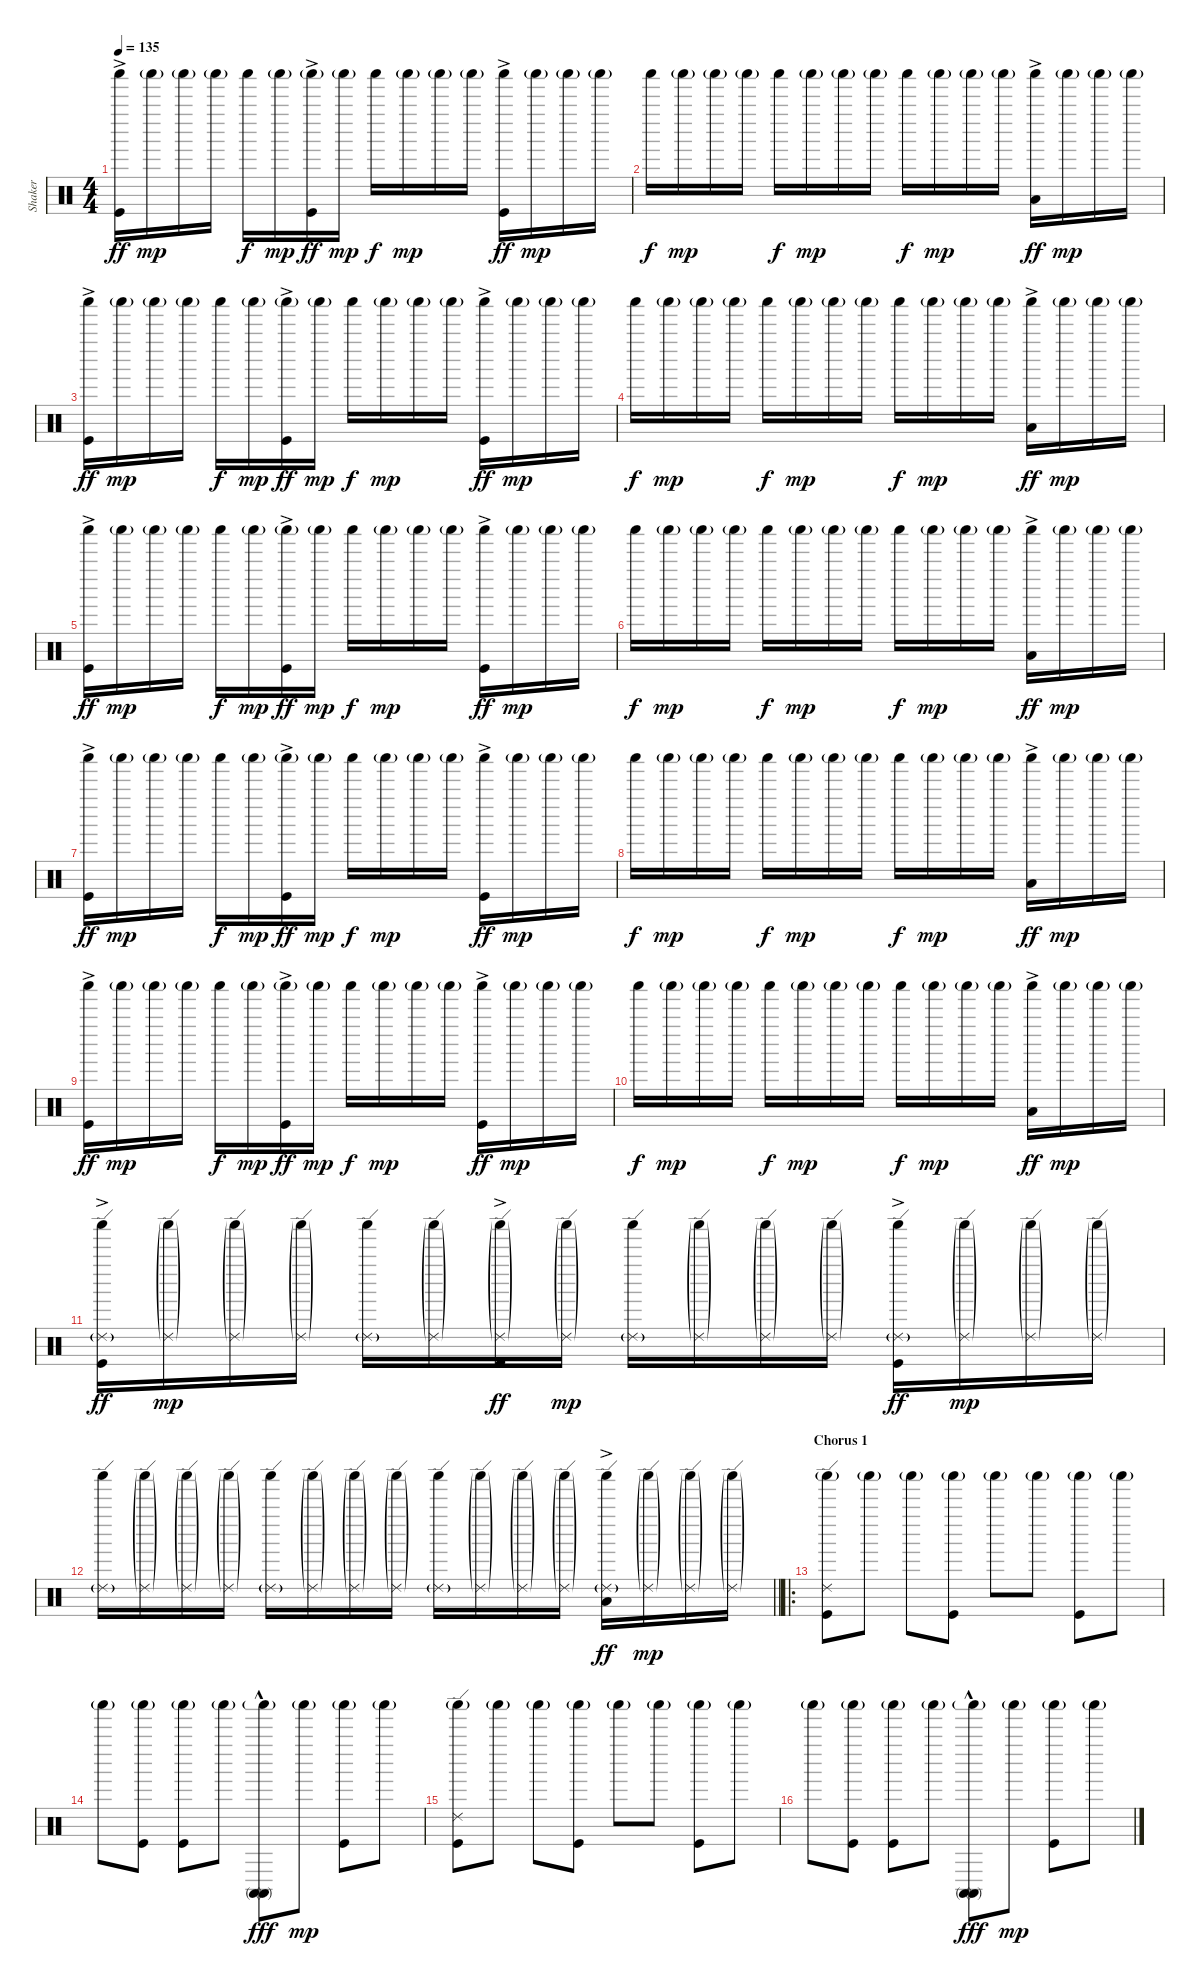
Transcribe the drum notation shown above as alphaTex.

\track ("Shaker" "Shaker") {instrument percussion}
\staff {score}
\articulation defaults
\ts (4 4)
\tempo 135
\clef neutral
\ks c
("Shaker (hit)" "Kick (hit)"{ac}).16{dy ff} "Shaker (hit)"{g}.16{dy mp} "Shaker (hit)"{g}.16 "Shaker (hit)"{g}.16 "Shaker (hit)".16{dy f} "Shaker (hit)"{g}.16{dy mp} ("Shaker (hit)"{g} "Kick (hit)"{ac}).16{dy ff} "Shaker (hit)"{g}.16{dy mp} "Shaker (hit)".16{dy f} "Shaker (hit)"{g}.16{dy mp} "Shaker (hit)"{g}.16 "Shaker (hit)"{g}.16 ("Shaker (hit)" "Kick (hit)"{ac}).16{dy ff} "Shaker (hit)"{g}.16{dy mp} "Shaker (hit)"{g}.16 "Shaker (hit)"{g}.16 |
"Shaker (hit)".16{dy f} "Shaker (hit)"{g}.16{dy mp} "Shaker (hit)"{g}.16 "Shaker (hit)"{g}.16 "Shaker (hit)".16{dy f} "Shaker (hit)"{g}.16{dy mp} "Shaker (hit)"{g}.16 "Shaker (hit)"{g}.16 "Shaker (hit)".16{dy f} "Shaker (hit)"{g}.16{dy mp} "Shaker (hit)"{g}.16 "Shaker (hit)"{g}.16 ("Shaker (hit)" "Low Floor Tom (hit)"{ac}).16{dy ff} "Shaker (hit)"{g}.16{dy mp} "Shaker (hit)"{g}.16 "Shaker (hit)"{g}.16 |
("Shaker (hit)" "Kick (hit)"{ac}).16{dy ff} "Shaker (hit)"{g}.16{dy mp} "Shaker (hit)"{g}.16 "Shaker (hit)"{g}.16 "Shaker (hit)".16{dy f} "Shaker (hit)"{g}.16{dy mp} ("Shaker (hit)"{g} "Kick (hit)"{ac}).16{dy ff} "Shaker (hit)"{g}.16{dy mp} "Shaker (hit)".16{dy f} "Shaker (hit)"{g}.16{dy mp} "Shaker (hit)"{g}.16 "Shaker (hit)"{g}.16 ("Shaker (hit)" "Kick (hit)"{ac}).16{dy ff} "Shaker (hit)"{g}.16{dy mp} "Shaker (hit)"{g}.16 "Shaker (hit)"{g}.16 |
"Shaker (hit)".16{dy f} "Shaker (hit)"{g}.16{dy mp} "Shaker (hit)"{g}.16 "Shaker (hit)"{g}.16 "Shaker (hit)".16{dy f} "Shaker (hit)"{g}.16{dy mp} "Shaker (hit)"{g}.16 "Shaker (hit)"{g}.16 "Shaker (hit)".16{dy f} "Shaker (hit)"{g}.16{dy mp} "Shaker (hit)"{g}.16 "Shaker (hit)"{g}.16 ("Shaker (hit)" "Low Floor Tom (hit)"{ac}).16{dy ff} "Shaker (hit)"{g}.16{dy mp} "Shaker (hit)"{g}.16 "Shaker (hit)"{g}.16 |
("Shaker (hit)" "Kick (hit)"{ac}).16{dy ff} "Shaker (hit)"{g}.16{dy mp} "Shaker (hit)"{g}.16 "Shaker (hit)"{g}.16 "Shaker (hit)".16{dy f} "Shaker (hit)"{g}.16{dy mp} ("Shaker (hit)"{g} "Kick (hit)"{ac}).16{dy ff} "Shaker (hit)"{g}.16{dy mp} "Shaker (hit)".16{dy f} "Shaker (hit)"{g}.16{dy mp} "Shaker (hit)"{g}.16 "Shaker (hit)"{g}.16 ("Shaker (hit)" "Kick (hit)"{ac}).16{dy ff} "Shaker (hit)"{g}.16{dy mp} "Shaker (hit)"{g}.16 "Shaker (hit)"{g}.16 |
"Shaker (hit)".16{dy f} "Shaker (hit)"{g}.16{dy mp} "Shaker (hit)"{g}.16 "Shaker (hit)"{g}.16 "Shaker (hit)".16{dy f} "Shaker (hit)"{g}.16{dy mp} "Shaker (hit)"{g}.16 "Shaker (hit)"{g}.16 "Shaker (hit)".16{dy f} "Shaker (hit)"{g}.16{dy mp} "Shaker (hit)"{g}.16 "Shaker (hit)"{g}.16 ("Shaker (hit)" "Low Floor Tom (hit)"{ac}).16{dy ff} "Shaker (hit)"{g}.16{dy mp} "Shaker (hit)"{g}.16 "Shaker (hit)"{g}.16 |
("Shaker (hit)" "Kick (hit)"{ac}).16{dy ff} "Shaker (hit)"{g}.16{dy mp} "Shaker (hit)"{g}.16 "Shaker (hit)"{g}.16 "Shaker (hit)".16{dy f} "Shaker (hit)"{g}.16{dy mp} ("Shaker (hit)"{g} "Kick (hit)"{ac}).16{dy ff} "Shaker (hit)"{g}.16{dy mp} "Shaker (hit)".16{dy f} "Shaker (hit)"{g}.16{dy mp} "Shaker (hit)"{g}.16 "Shaker (hit)"{g}.16 ("Shaker (hit)" "Kick (hit)"{ac}).16{dy ff} "Shaker (hit)"{g}.16{dy mp} "Shaker (hit)"{g}.16 "Shaker (hit)"{g}.16 |
"Shaker (hit)".16{dy f} "Shaker (hit)"{g}.16{dy mp} "Shaker (hit)"{g}.16 "Shaker (hit)"{g}.16 "Shaker (hit)".16{dy f} "Shaker (hit)"{g}.16{dy mp} "Shaker (hit)"{g}.16 "Shaker (hit)"{g}.16 "Shaker (hit)".16{dy f} "Shaker (hit)"{g}.16{dy mp} "Shaker (hit)"{g}.16 "Shaker (hit)"{g}.16 ("Shaker (hit)" "Low Floor Tom (hit)"{ac}).16{dy ff} "Shaker (hit)"{g}.16{dy mp} "Shaker (hit)"{g}.16 "Shaker (hit)"{g}.16 |
("Shaker (hit)" "Kick (hit)"{ac}).16{dy ff} "Shaker (hit)"{g}.16{dy mp} "Shaker (hit)"{g}.16 "Shaker (hit)"{g}.16 "Shaker (hit)".16{dy f} "Shaker (hit)"{g}.16{dy mp} ("Shaker (hit)"{g} "Kick (hit)"{ac}).16{dy ff} "Shaker (hit)"{g}.16{dy mp} "Shaker (hit)".16{dy f} "Shaker (hit)"{g}.16{dy mp} "Shaker (hit)"{g}.16 "Shaker (hit)"{g}.16 ("Shaker (hit)" "Kick (hit)"{ac}).16{dy ff} "Shaker (hit)"{g}.16{dy mp} "Shaker (hit)"{g}.16 "Shaker (hit)"{g}.16 |
"Shaker (hit)".16{dy f} "Shaker (hit)"{g}.16{dy mp} "Shaker (hit)"{g}.16 "Shaker (hit)"{g}.16 "Shaker (hit)".16{dy f} "Shaker (hit)"{g}.16{dy mp} "Shaker (hit)"{g}.16 "Shaker (hit)"{g}.16 "Shaker (hit)".16{dy f} "Shaker (hit)"{g}.16{dy mp} "Shaker (hit)"{g}.16 "Shaker (hit)"{g}.16 ("Shaker (hit)" "Low Floor Tom (hit)"{ac}).16{dy ff} "Shaker (hit)"{g}.16{dy mp} "Shaker (hit)"{g}.16 "Shaker (hit)"{g}.16 |
("Shaker (hit)" "Ride (edge) 2"{g} "Kick (hit)"{ac}).16{dy ff} ("Shaker (hit)"{g} "Ride (edge) 2"{g}).16{dy mp} ("Shaker (hit)"{g} "Ride (edge) 2"{g}).16 ("Shaker (hit)"{g} "Ride (edge) 2"{g}).16 ("Shaker (hit)" "Ride (edge) 2"{g}).16 ("Shaker (hit)"{g} "Ride (edge) 2"{g}).16 ("Shaker (hit)"{g} "Ride (edge) 2"{g} "Kick (hit)"{ac}).16{dy ff} ("Shaker (hit)"{g} "Ride (edge) 2"{g}).16{dy mp} ("Shaker (hit)" "Ride (edge) 2"{g}).16 ("Shaker (hit)"{g} "Ride (edge) 2"{g}).16 ("Shaker (hit)"{g} "Ride (edge) 2"{g}).16 ("Shaker (hit)"{g} "Ride (edge) 2"{g}).16 ("Shaker (hit)" "Ride (edge) 2"{g} "Kick (hit)"{ac}).16{dy ff} ("Shaker (hit)"{g} "Ride (edge) 2"{g}).16{dy mp} ("Shaker (hit)"{g} "Ride (edge) 2"{g}).16 ("Shaker (hit)"{g} "Ride (edge) 2"{g}).16 |
\barLineRight lightlight
("Shaker (hit)" "Ride (edge) 2"{g}).16 ("Shaker (hit)"{g} "Ride (edge) 2"{g}).16 ("Shaker (hit)"{g} "Ride (edge) 2"{g}).16 ("Shaker (hit)"{g} "Ride (edge) 2"{g}).16 ("Shaker (hit)" "Ride (edge) 2"{g}).16 ("Shaker (hit)"{g} "Ride (edge) 2"{g}).16 ("Shaker (hit)"{g} "Ride (edge) 2"{g}).16 ("Shaker (hit)"{g} "Ride (edge) 2"{g}).16 ("Shaker (hit)" "Ride (edge) 2"{g}).16 ("Shaker (hit)"{g} "Ride (edge) 2"{g}).16 ("Shaker (hit)"{g} "Ride (edge) 2"{g}).16 ("Shaker (hit)"{g} "Ride (edge) 2"{g}).16 ("Shaker (hit)" "Ride (edge) 2"{g} "Low Floor Tom (hit)"{ac}).16{dy ff} ("Shaker (hit)"{g} "Ride (edge) 2"{g}).16{dy mp} ("Shaker (hit)"{g} "Ride (edge) 2"{g}).16 ("Shaker (hit)"{g} "Ride (edge) 2"{g}).16 |
\ro
\section ("" "Chorus 1")
("Ride (edge) 2" "Shaker (hit)"{g} "Kick (hit)").8{volume 11} "Shaker (hit)"{g}.8 "Shaker (hit)"{g}.8 ("Shaker (hit)"{g} "Kick (hit)").8 "Shaker (hit)"{g}.8 "Shaker (hit)"{g}.8 ("Shaker (hit)"{g} "Kick (hit)").8 "Shaker (hit)"{g}.8 |
"Shaker (hit)"{g}.8 ("Shaker (hit)"{g} "Kick (hit)").8 ("Shaker (hit)"{g} "Kick (hit)").8 "Shaker (hit)"{g}.8 ("Shaker (hit)"{g} "Conga high (mute)"{hac} "Conga high (mute)"{hac}).8{dy fff} "Shaker (hit)"{g}.8{dy mp} ("Shaker (hit)"{g} "Kick (hit)").8 "Shaker (hit)"{g}.8 |
("Ride (edge) 2" "Shaker (hit)"{g} "Kick (hit)").8 "Shaker (hit)"{g}.8 "Shaker (hit)"{g}.8 ("Shaker (hit)"{g} "Kick (hit)").8 "Shaker (hit)"{g}.8 "Shaker (hit)"{g}.8 ("Shaker (hit)"{g} "Kick (hit)").8 "Shaker (hit)"{g}.8 |
"Shaker (hit)"{g}.8 ("Shaker (hit)"{g} "Kick (hit)").8 ("Shaker (hit)"{g} "Kick (hit)").8 "Shaker (hit)"{g}.8 ("Shaker (hit)"{g} "Conga high (mute)"{hac} "Conga high (mute)"{hac}).8{dy fff} "Shaker (hit)"{g}.8{dy mp} ("Shaker (hit)"{g} "Kick (hit)").8 "Shaker (hit)"{g}.8
